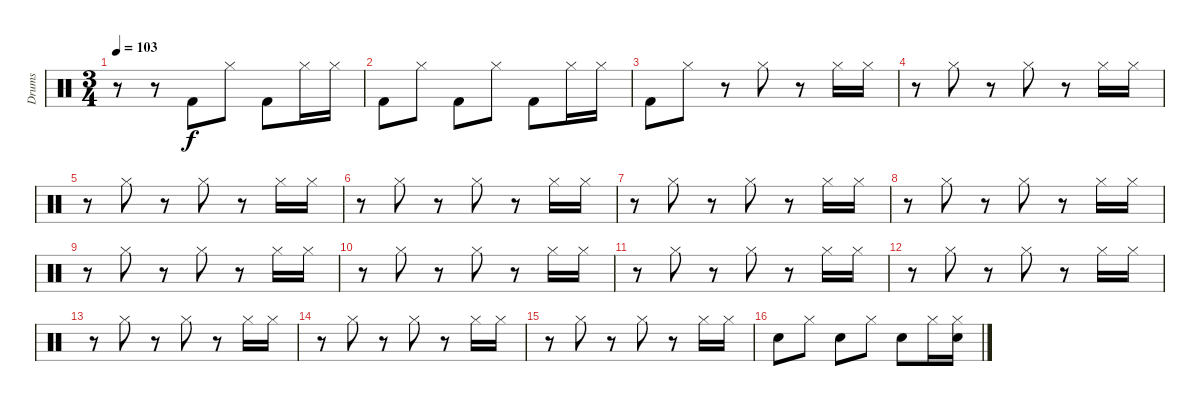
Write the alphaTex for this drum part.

\track ("Drums" "Drums") {instrument percussion}
\staff {score}
\articulation defaults
\ts (3 4)
\tempo 103
\clef neutral
\ks c
r.8{dy f} r.8 "Kick (hit) 2".8 "Hi-Hat (closed)".8 "Kick (hit) 2".8 "Hi-Hat (closed)".16 "Hi-Hat (closed)".16 |
"Kick (hit) 2".8 "Hi-Hat (closed)".8 "Kick (hit) 2".8 "Hi-Hat (closed)".8 "Kick (hit) 2".8 "Hi-Hat (closed)".16 "Hi-Hat (closed)".16 |
"Kick (hit) 2".8 "Hi-Hat (closed)".8 r.8 "Hi-Hat (closed)".8 r.8 "Hi-Hat (closed)".16 "Hi-Hat (closed)".16 |
r.8 "Hi-Hat (closed)".8 r.8 "Hi-Hat (closed)".8 r.8 "Hi-Hat (closed)".16 "Hi-Hat (closed)".16 |
r.8 "Hi-Hat (closed)".8 r.8 "Hi-Hat (closed)".8 r.8 "Hi-Hat (closed)".16 "Hi-Hat (closed)".16 |
r.8 "Hi-Hat (closed)".8 r.8 "Hi-Hat (closed)".8 r.8 "Hi-Hat (closed)".16 "Hi-Hat (closed)".16 |
r.8 "Hi-Hat (closed)".8 r.8 "Hi-Hat (closed)".8 r.8 "Hi-Hat (closed)".16 "Hi-Hat (closed)".16 |
r.8 "Hi-Hat (closed)".8 r.8 "Hi-Hat (closed)".8 r.8 "Hi-Hat (closed)".16 "Hi-Hat (closed)".16 |
r.8 "Hi-Hat (closed)".8 r.8 "Hi-Hat (closed)".8 r.8 "Hi-Hat (closed)".16 "Hi-Hat (closed)".16 |
r.8 "Hi-Hat (closed)".8 r.8 "Hi-Hat (closed)".8 r.8 "Hi-Hat (closed)".16 "Hi-Hat (closed)".16 |
r.8 "Hi-Hat (closed)".8 r.8 "Hi-Hat (closed)".8 r.8 "Hi-Hat (closed)".16 "Hi-Hat (closed)".16 |
r.8 "Hi-Hat (closed)".8 r.8 "Hi-Hat (closed)".8 r.8 "Hi-Hat (closed)".16 "Hi-Hat (closed)".16 |
r.8 "Hi-Hat (closed)".8 r.8 "Hi-Hat (closed)".8 r.8 "Hi-Hat (closed)".16 "Hi-Hat (closed)".16 |
r.8 "Hi-Hat (closed)".8 r.8 "Hi-Hat (closed)".8 r.8 "Hi-Hat (closed)".16 "Hi-Hat (closed)".16 |
r.8 "Hi-Hat (closed)".8 r.8 "Hi-Hat (closed)".8 r.8 "Hi-Hat (closed)".16 "Hi-Hat (closed)".16 |
"Snare (hit) 2".8 "Hi-Hat (closed)".8 "Snare (hit) 2".8 "Hi-Hat (closed)".8 "Snare (hit) 2".8 "Hi-Hat (closed)".16 ("Hi-Hat (closed)" "Snare (hit) 2").16
